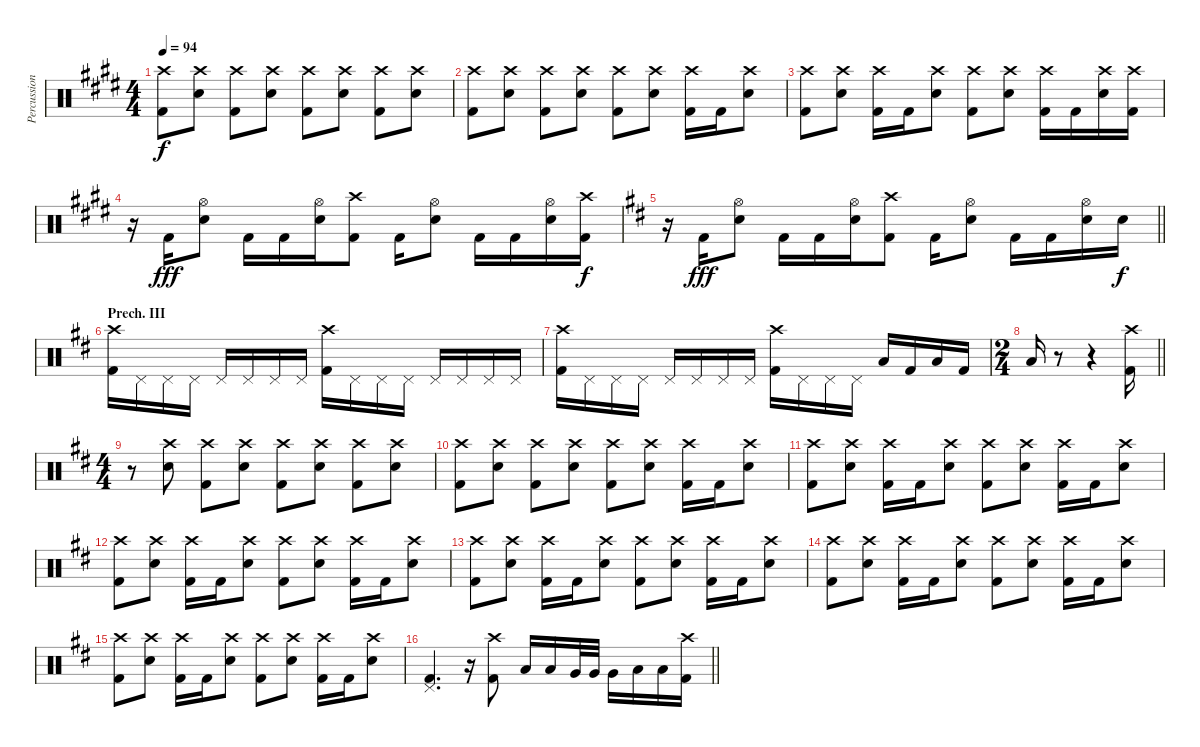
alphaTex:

\track ("Percussion" "Percussion") {instrument percussion}
\staff {score}
\articulation defaults
\ts (4 4)
\tempo 94
\clef neutral
\ks c#minor
("Crash high (hit)" "Kick (hit) 2").8{dy f} ("Crash high (hit)" "Electric Snare (hit)").8 ("Crash high (hit)" "Kick (hit) 2").8 ("Crash high (hit)" "Electric Snare (hit)").8 ("Crash high (hit)" "Kick (hit) 2").8 ("Crash high (hit)" "Electric Snare (hit)").8 ("Crash high (hit)" "Kick (hit) 2").8 ("Crash high (hit)" "Electric Snare (hit)").8 |
("Crash high (hit)" "Kick (hit) 2").8 ("Crash high (hit)" "Electric Snare (hit)").8 ("Crash high (hit)" "Kick (hit) 2").8 ("Crash high (hit)" "Electric Snare (hit)").8 ("Crash high (hit)" "Kick (hit) 2").8 ("Crash high (hit)" "Electric Snare (hit)").8 ("Crash high (hit)" "Kick (hit) 2").16 "Kick (hit) 2".16 ("Crash high (hit)" "Electric Snare (hit)").8 |
("Crash high (hit)" "Kick (hit) 2").8 ("Crash high (hit)" "Electric Snare (hit)").8 ("Crash high (hit)" "Kick (hit) 2").16 "Kick (hit) 2".16 ("Crash high (hit)" "Electric Snare (hit)").8 ("Crash high (hit)" "Kick (hit) 2").8 ("Crash high (hit)" "Electric Snare (hit)").8 ("Crash high (hit)" "Kick (hit) 2").16 "Kick (hit) 2".16 ("Crash high (hit)" "Electric Snare (hit)").16 ("Crash high (hit)" "Kick (hit) 2").16 |
r.16 "Kick (hit) 2".16{dy fff} ("Hi-Hat (open)" "Electric Snare (hit)").8 "Kick (hit) 2".16 "Kick (hit) 2".16 ("Hi-Hat (open)" "Electric Snare (hit)").16 ("Crash high (hit)" "Kick (hit) 2").8 "Kick (hit) 2".16 ("Hi-Hat (open)" "Electric Snare (hit)").8 "Kick (hit) 2".16 "Kick (hit) 2".16 ("Hi-Hat (open)" "Electric Snare (hit)").16 ("Crash high (hit)" "Kick (hit) 2").16{dy f} |
\barLineRight lightlight
\ks bminor
r.16 "Kick (hit) 2".16{dy fff} ("Hi-Hat (open)" "Electric Snare (hit)").8 "Kick (hit) 2".16 "Kick (hit) 2".16 ("Hi-Hat (open)" "Electric Snare (hit)").16 ("Crash high (hit)" "Kick (hit) 2").8 "Kick (hit) 2".16 ("Hi-Hat (open)" "Electric Snare (hit)").8 "Kick (hit) 2".16 "Kick (hit) 2".16 ("Hi-Hat (open)" "Electric Snare (hit)").16 "Electric Snare (hit)".16{dy f} |
\section ("" "Prech. III")
("Crash high (hit)" "Kick (hit) 2").16 "Pedal Hi-Hat (hit)".16 "Pedal Hi-Hat (hit)".16 "Pedal Hi-Hat (hit)".16 "Pedal Hi-Hat (hit)".16 "Pedal Hi-Hat (hit)".16 "Pedal Hi-Hat (hit)".16 "Pedal Hi-Hat (hit)".16 ("Crash high (hit)" "Kick (hit) 2").16 "Pedal Hi-Hat (hit)".16 "Pedal Hi-Hat (hit)".16 "Pedal Hi-Hat (hit)".16 "Pedal Hi-Hat (hit)".16 "Pedal Hi-Hat (hit)".16 "Pedal Hi-Hat (hit)".16 "Pedal Hi-Hat (hit)".16 |
("Crash high (hit)" "Kick (hit) 2").16 "Pedal Hi-Hat (hit)".16 "Pedal Hi-Hat (hit)".16 "Pedal Hi-Hat (hit)".16 "Pedal Hi-Hat (hit)".16 "Pedal Hi-Hat (hit)".16 "Pedal Hi-Hat (hit)".16 "Pedal Hi-Hat (hit)".16 ("Crash high (hit)" "Kick (hit) 2").16 "Pedal Hi-Hat (hit)".16 "Pedal Hi-Hat (hit)".16 "Pedal Hi-Hat (hit)".16 "Low Floor Tom (hit)".16 "Kick (hit) 2".16 "Low Floor Tom (hit)".16 "Kick (hit) 2".16 |
\ts (2 4)
\barLineRight lightlight "Low Floor Tom (hit)".16
r.8 r.4 ("Crash high (hit)" "Kick (hit) 2").16 |
\ts (4 4)
r.8 ("Crash high (hit)" "Electric Snare (hit)").8 ("Crash high (hit)" "Kick (hit) 2").8 ("Crash high (hit)" "Electric Snare (hit)").8 ("Crash high (hit)" "Kick (hit) 2").8 ("Crash high (hit)" "Electric Snare (hit)").8 ("Crash high (hit)" "Kick (hit) 2").8 ("Crash high (hit)" "Electric Snare (hit)").8 |
("Crash high (hit)" "Kick (hit) 2").8 ("Crash high (hit)" "Electric Snare (hit)").8 ("Crash high (hit)" "Kick (hit) 2").8 ("Crash high (hit)" "Electric Snare (hit)").8 ("Crash high (hit)" "Kick (hit) 2").8 ("Crash high (hit)" "Electric Snare (hit)").8 ("Crash high (hit)" "Kick (hit) 2").16 "Kick (hit) 2".16 ("Crash high (hit)" "Electric Snare (hit)").8 |
("Crash high (hit)" "Kick (hit) 2").8 ("Crash high (hit)" "Electric Snare (hit)").8 ("Crash high (hit)" "Kick (hit) 2").16 "Kick (hit) 2".16 ("Crash high (hit)" "Electric Snare (hit)").8 ("Crash high (hit)" "Kick (hit) 2").8 ("Crash high (hit)" "Electric Snare (hit)").8 ("Crash high (hit)" "Kick (hit) 2").16 "Kick (hit) 2".16 ("Crash high (hit)" "Electric Snare (hit)").8 |
("Crash high (hit)" "Kick (hit) 2").8 ("Crash high (hit)" "Electric Snare (hit)").8 ("Crash high (hit)" "Kick (hit) 2").16 "Kick (hit) 2".16 ("Crash high (hit)" "Electric Snare (hit)").8 ("Crash high (hit)" "Kick (hit) 2").8 ("Crash high (hit)" "Electric Snare (hit)").8 ("Crash high (hit)" "Kick (hit) 2").16 "Kick (hit) 2".16 ("Crash high (hit)" "Electric Snare (hit)").8 |
("Crash high (hit)" "Kick (hit) 2").8 ("Crash high (hit)" "Electric Snare (hit)").8 ("Crash high (hit)" "Kick (hit) 2").16 "Kick (hit) 2".16 ("Crash high (hit)" "Electric Snare (hit)").8 ("Crash high (hit)" "Kick (hit) 2").8 ("Crash high (hit)" "Electric Snare (hit)").8 ("Crash high (hit)" "Kick (hit) 2").16 "Kick (hit) 2".16 ("Crash high (hit)" "Electric Snare (hit)").8 |
("Crash high (hit)" "Kick (hit) 2").8 ("Crash high (hit)" "Electric Snare (hit)").8 ("Crash high (hit)" "Kick (hit) 2").16 "Kick (hit) 2".16 ("Crash high (hit)" "Electric Snare (hit)").8 ("Crash high (hit)" "Kick (hit) 2").8 ("Crash high (hit)" "Electric Snare (hit)").8 ("Crash high (hit)" "Kick (hit) 2").16 "Kick (hit) 2".16 ("Crash high (hit)" "Electric Snare (hit)").8 |
("Crash high (hit)" "Kick (hit) 2").8 ("Crash high (hit)" "Electric Snare (hit)").8 ("Crash high (hit)" "Kick (hit) 2").16 "Kick (hit) 2".16 ("Crash high (hit)" "Electric Snare (hit)").8 ("Crash high (hit)" "Kick (hit) 2").8 ("Crash high (hit)" "Electric Snare (hit)").8 ("Crash high (hit)" "Kick (hit) 2").16 "Kick (hit) 2".16 ("Crash high (hit)" "Electric Snare (hit)").8 |
\barLineRight lightlight
("Pedal Hi-Hat (hit)" "Kick (hit) 2").4{d} r.16 ("Crash high (hit)" "Kick (hit) 2").8 "Low Tom (hit)".16 "Low Tom (hit)".16 "Very Low Tom (hit)".32 "Very Low Tom (hit)".32 "Very Low Tom (hit)".16 "Low Floor Tom (hit)".16 "Low Floor Tom (hit)".16 ("Crash high (hit)" "Kick (hit) 2").16
